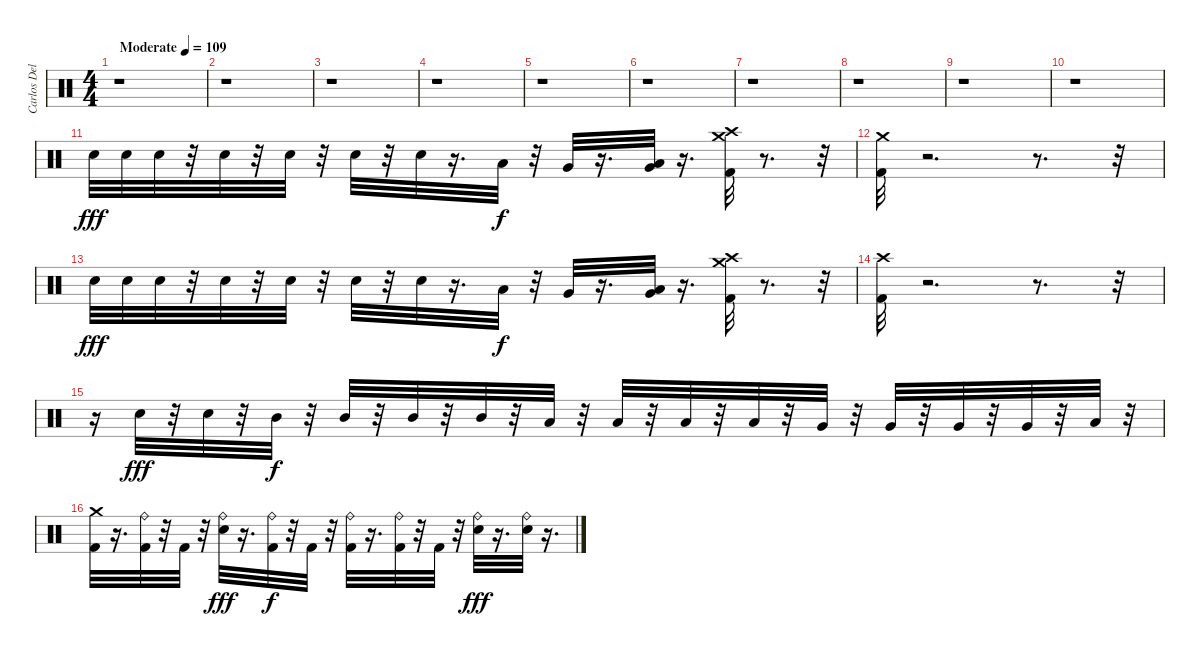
\track ("Carlos Delgado" "Carlos Del") {instrument percussion}
\staff {score}
\articulation defaults
\ts (4 4)
\tempo (109 "Moderate")
\clef neutral
\ks c
r.1{dy fff} |
r.1 |
r.1 |
r.1 |
r.1 |
r.1 |
r.1 |
r.1 |
r.1 |
r.1 |
"Electric Snare (hit)".32 "Electric Snare (hit)".32 "Electric Snare (hit)".32 r.32 "Electric Snare (hit)".32 r.32 "Electric Snare (hit)".32 r.32 "Electric Snare (hit)".32 r.32 "Electric Snare (hit)".32 r.16{d} "Low Tom (hit)".32{dy f} r.32 "Very Low Tom (hit)".32 r.16{d} ("Very Low Tom (hit)" "Low Floor Tom (hit)").32 r.16{d} ("Crash high (hit)" "Crash medium (hit)" "Kick (hit) 2").32 r.8{d} r.32 |
("Crash medium (hit)" "Kick (hit) 2").32 r.2{d} r.8{d} r.32 |
"Electric Snare (hit)".32{dy fff} "Electric Snare (hit)".32 "Electric Snare (hit)".32 r.32 "Electric Snare (hit)".32 r.32 "Electric Snare (hit)".32 r.32 "Electric Snare (hit)".32 r.32 "Electric Snare (hit)".32 r.16{d} "Low Tom (hit)".32{dy f} r.32 "Very Low Tom (hit)".32 r.16{d} ("Very Low Tom (hit)" "Low Floor Tom (hit)").32 r.16{d} ("Crash high (hit)" "Crash medium (hit)" "Kick (hit) 2").32 r.8{d} r.32 |
("Crash high (hit)" "Kick (hit) 2").32 r.2{d} r.8{d} r.32 |
r.16 "Electric Snare (hit)".32{dy fff} r.32 "Electric Snare (hit)".32 r.32 "Mid Tom (hit)".32{dy f} r.32 "Mid Tom (hit)".32 r.32 "Mid Tom (hit)".32 r.32 "Mid Tom (hit)".32 r.32 "Low Tom (hit)".32 r.32 "Low Tom (hit)".32 r.32 "Low Tom (hit)".32 r.32 "Low Tom (hit)".32 r.32 "Very Low Tom (hit)".32 r.32 "Very Low Tom (hit)".32 r.32 "Very Low Tom (hit)".32 r.32 "Very Low Tom (hit)".32 r.32 "Low Floor Tom (hit)".32 r.32 |
("Crash medium (hit)" "Kick (hit) 2").32 r.16{d} ("Kick (hit) 2" "Ride (bell)").32 r.32 "Kick (hit) 2".32 r.32 ("Ride (bell)" "Electric Snare (hit)").32{dy fff} r.16{d} ("Ride (bell)" "Kick (hit) 2").32{dy f} r.32 "Kick (hit) 2".32 r.32 ("Kick (hit) 2" "Ride (bell)").32 r.16{d} ("Kick (hit) 2" "Ride (bell)").32 r.32 "Kick (hit) 2".32 r.32 ("Electric Snare (hit)" "Ride (bell)").32{dy fff} r.16{d} ("Electric Snare (hit)" "Ride (bell)").32 r.16{d}
